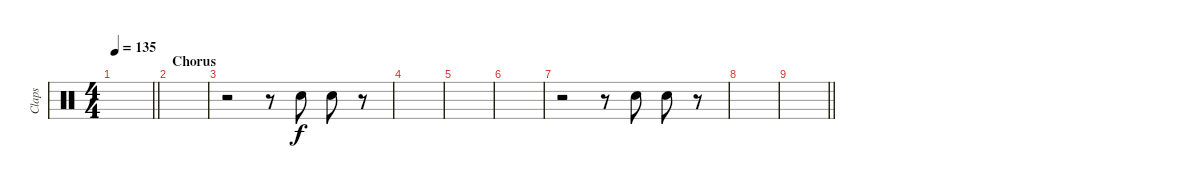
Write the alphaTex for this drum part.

\track ("Claps" "Claps") {instrument percussion}
\staff {score}
\articulation defaults
\ts (4 4)
\tempo 135
\clef neutral
\barLineRight lightlight
\ks c
|
\section ("" "Chorus")
|
r.2 r.8 "Hand Clap (hit)".8 "Hand Clap (hit)".8 r.8 |
|
|
|
r.2 r.8 "Hand Clap (hit)".8 "Hand Clap (hit)".8 r.8 |
|
\barLineRight lightlight
